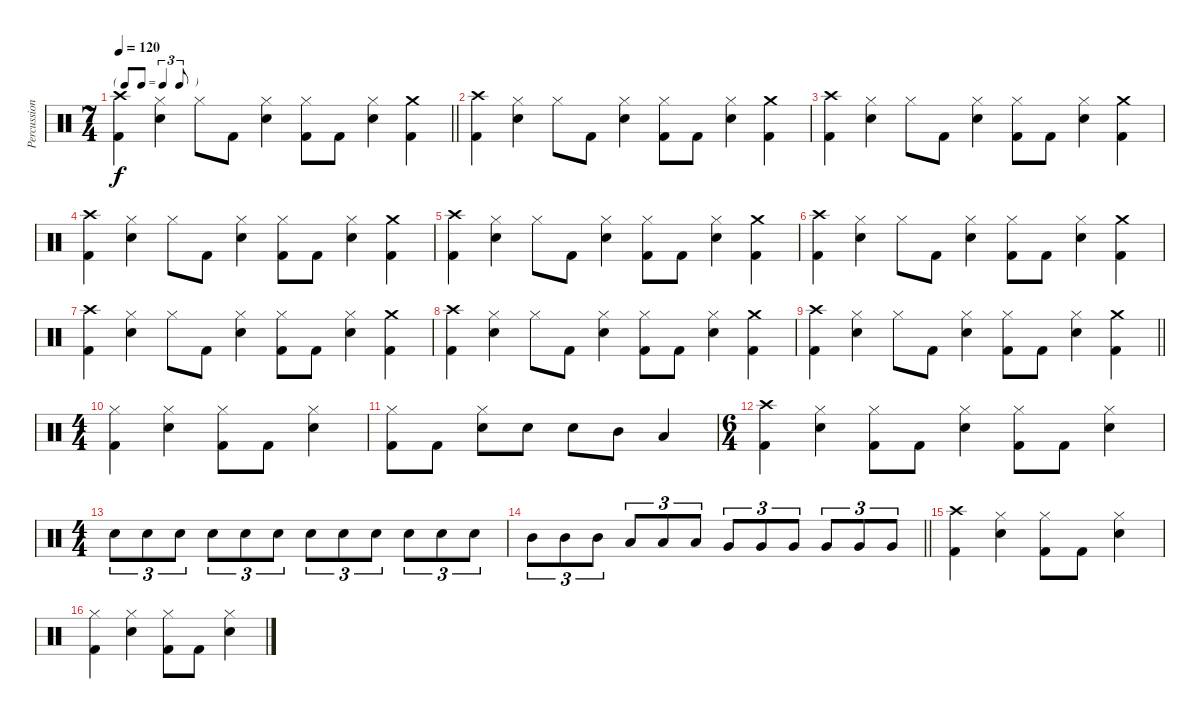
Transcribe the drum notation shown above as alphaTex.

\track ("Percussion" "Percussion") {instrument percussion}
\staff {score}
\articulation defaults
\ts (7 4)
\tf triplet8th
\tempo 120
\clef neutral
\barLineRight lightlight
\ks c
("Crash high (hit)" "Kick (hit) 2").4{dy f} ("Hi-Hat (closed)" "Electric Snare (hit)").4 "Hi-Hat (closed)".8 "Kick (hit) 2".8 ("Hi-Hat (closed)" "Electric Snare (hit)").4 ("Hi-Hat (closed)" "Kick (hit) 2").8 "Kick (hit) 2".8 ("Hi-Hat (closed)" "Electric Snare (hit)").4 ("Crash medium (hit)" "Kick (hit) 2").4 |
("Crash high (hit)" "Kick (hit) 2").4 ("Hi-Hat (closed)" "Electric Snare (hit)").4 "Hi-Hat (closed)".8 "Kick (hit) 2".8 ("Hi-Hat (closed)" "Electric Snare (hit)").4 ("Hi-Hat (closed)" "Kick (hit) 2").8 "Kick (hit) 2".8 ("Hi-Hat (closed)" "Electric Snare (hit)").4 ("Crash medium (hit)" "Kick (hit) 2").4 |
("Crash high (hit)" "Kick (hit) 2").4 ("Hi-Hat (closed)" "Electric Snare (hit)").4 "Hi-Hat (closed)".8 "Kick (hit) 2".8 ("Hi-Hat (closed)" "Electric Snare (hit)").4 ("Hi-Hat (closed)" "Kick (hit) 2").8 "Kick (hit) 2".8 ("Hi-Hat (closed)" "Electric Snare (hit)").4 ("Crash medium (hit)" "Kick (hit) 2").4 |
("Crash high (hit)" "Kick (hit) 2").4 ("Hi-Hat (closed)" "Electric Snare (hit)").4 "Hi-Hat (closed)".8 "Kick (hit) 2".8 ("Hi-Hat (closed)" "Electric Snare (hit)").4 ("Hi-Hat (closed)" "Kick (hit) 2").8 "Kick (hit) 2".8 ("Hi-Hat (closed)" "Electric Snare (hit)").4 ("Crash medium (hit)" "Kick (hit) 2").4 |
("Crash high (hit)" "Kick (hit) 2").4 ("Hi-Hat (closed)" "Electric Snare (hit)").4 "Hi-Hat (closed)".8 "Kick (hit) 2".8 ("Hi-Hat (closed)" "Electric Snare (hit)").4 ("Hi-Hat (closed)" "Kick (hit) 2").8 "Kick (hit) 2".8 ("Hi-Hat (closed)" "Electric Snare (hit)").4 ("Crash medium (hit)" "Kick (hit) 2").4 |
("Crash high (hit)" "Kick (hit) 2").4 ("Hi-Hat (closed)" "Electric Snare (hit)").4 "Hi-Hat (closed)".8 "Kick (hit) 2".8 ("Hi-Hat (closed)" "Electric Snare (hit)").4 ("Hi-Hat (closed)" "Kick (hit) 2").8 "Kick (hit) 2".8 ("Hi-Hat (closed)" "Electric Snare (hit)").4 ("Crash medium (hit)" "Kick (hit) 2").4 |
("Crash high (hit)" "Kick (hit) 2").4 ("Hi-Hat (closed)" "Electric Snare (hit)").4 "Hi-Hat (closed)".8 "Kick (hit) 2".8 ("Hi-Hat (closed)" "Electric Snare (hit)").4 ("Hi-Hat (closed)" "Kick (hit) 2").8 "Kick (hit) 2".8 ("Hi-Hat (closed)" "Electric Snare (hit)").4 ("Crash medium (hit)" "Kick (hit) 2").4 |
("Crash high (hit)" "Kick (hit) 2").4 ("Hi-Hat (closed)" "Electric Snare (hit)").4 "Hi-Hat (closed)".8 "Kick (hit) 2".8 ("Hi-Hat (closed)" "Electric Snare (hit)").4 ("Hi-Hat (closed)" "Kick (hit) 2").8 "Kick (hit) 2".8 ("Hi-Hat (closed)" "Electric Snare (hit)").4 ("Crash medium (hit)" "Kick (hit) 2").4 |
\barLineRight lightlight
("Crash high (hit)" "Kick (hit) 2").4 ("Hi-Hat (closed)" "Electric Snare (hit)").4 "Hi-Hat (closed)".8 "Kick (hit) 2".8 ("Hi-Hat (closed)" "Electric Snare (hit)").4 ("Hi-Hat (closed)" "Kick (hit) 2").8 "Kick (hit) 2".8 ("Hi-Hat (closed)" "Electric Snare (hit)").4 ("Crash medium (hit)" "Kick (hit) 2").4 |
\ts (4 4)
("Hi-Hat (closed)" "Kick (hit) 2").4 ("Hi-Hat (closed)" "Electric Snare (hit)").4 ("Hi-Hat (closed)" "Kick (hit) 2").8 "Kick (hit) 2".8 ("Hi-Hat (closed)" "Electric Snare (hit)").4 |
("Hi-Hat (closed)" "Kick (hit) 2").8 "Kick (hit) 2".8 ("Hi-Hat (closed)" "Electric Snare (hit)").8 "Electric Snare (hit)".8 "Electric Snare (hit)".8 "Mid Tom (hit)".8 "Low Tom (hit)".4 |
\ts (6 4)
("Crash high (hit)" "Kick (hit) 2").4 ("Hi-Hat (closed)" "Electric Snare (hit)").4 ("Hi-Hat (closed)" "Kick (hit) 2").8 "Kick (hit) 2".8 ("Hi-Hat (closed)" "Electric Snare (hit)").4 ("Hi-Hat (closed)" "Kick (hit) 2").8 "Kick (hit) 2".8 ("Hi-Hat (closed)" "Electric Snare (hit)").4 |
\ts (4 4)
"Electric Snare (hit)".8{tu (3 2)} "Electric Snare (hit)".8{tu (3 2)} "Electric Snare (hit)".8{tu (3 2)} "Electric Snare (hit)".8{tu (3 2)} "Electric Snare (hit)".8{tu (3 2)} "Electric Snare (hit)".8{tu (3 2)} "Electric Snare (hit)".8{tu (3 2)} "Electric Snare (hit)".8{tu (3 2)} "Electric Snare (hit)".8{tu (3 2)} "Electric Snare (hit)".8{tu (3 2)} "Electric Snare (hit)".8{tu (3 2)} "Electric Snare (hit)".8{tu (3 2)} |
\barLineRight lightlight "Mid Tom (hit)".8{tu (3 2)} "Mid Tom (hit)".8{tu (3 2)} "Mid Tom (hit)".8{tu (3 2)} "Low Tom (hit)".8{tu (3 2)} "Low Tom (hit)".8{tu (3 2)} "Low Tom (hit)".8{tu (3 2)} "Very Low Tom (hit)".8{tu (3 2)} "Very Low Tom (hit)".8{tu (3 2)} "Very Low Tom (hit)".8{tu (3 2)} "Very Low Tom (hit)".8{tu (3 2)} "Very Low Tom (hit)".8{tu (3 2)} "Very Low Tom (hit)".8{tu (3 2)}
|
("Crash high (hit)" "Kick (hit) 2").4 ("Hi-Hat (closed)" "Electric Snare (hit)").4 ("Hi-Hat (closed)" "Kick (hit) 2").8 "Kick (hit) 2".8 ("Hi-Hat (closed)" "Electric Snare (hit)").4 |
("Hi-Hat (closed)" "Kick (hit) 2").4 ("Hi-Hat (closed)" "Electric Snare (hit)").4 ("Hi-Hat (closed)" "Kick (hit) 2").8 "Kick (hit) 2".8 ("Hi-Hat (closed)" "Electric Snare (hit)").4
